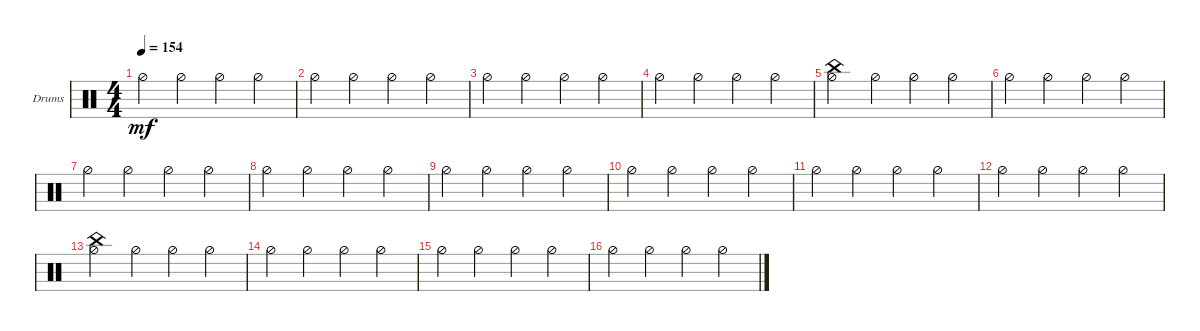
\defaultSystemsLayout 4
\bracketExtendMode groupsimilarinstruments
\firstSystemTrackNameOrientation horizontal
\otherSystemsTrackNameOrientation horizontal
\track ("Drumkit" "Drums") {instrument percussion}
\staff {score}
\articulation defaults
\ts (4 4)
\tempo 154
\clef neutral
\ks c "Hi-Hat (half)".4{dy mf} "Hi-Hat (half)".4 "Hi-Hat (half)".4 "Hi-Hat (half)".4
|
"Hi-Hat (half)".4 "Hi-Hat (half)".4 "Hi-Hat (half)".4 "Hi-Hat (half)".4 |
"Hi-Hat (half)".4 "Hi-Hat (half)".4 "Hi-Hat (half)".4 "Hi-Hat (half)".4 |
"Hi-Hat (half)".4 "Hi-Hat (half)".4 "Hi-Hat (half)".4 "Hi-Hat (half)".4 |
("Hi-Hat (half)" "China (hit)").4 "Hi-Hat (half)".4 "Hi-Hat (half)".4 "Hi-Hat (half)".4 |
"Hi-Hat (half)".4 "Hi-Hat (half)".4 "Hi-Hat (half)".4 "Hi-Hat (half)".4 |
"Hi-Hat (half)".4 "Hi-Hat (half)".4 "Hi-Hat (half)".4 "Hi-Hat (half)".4 |
"Hi-Hat (half)".4 "Hi-Hat (half)".4 "Hi-Hat (half)".4 "Hi-Hat (half)".4 |
"Hi-Hat (half)".4 "Hi-Hat (half)".4 "Hi-Hat (half)".4 "Hi-Hat (half)".4 |
"Hi-Hat (half)".4 "Hi-Hat (half)".4 "Hi-Hat (half)".4 "Hi-Hat (half)".4 |
"Hi-Hat (half)".4 "Hi-Hat (half)".4 "Hi-Hat (half)".4 "Hi-Hat (half)".4 |
"Hi-Hat (half)".4 "Hi-Hat (half)".4 "Hi-Hat (half)".4 "Hi-Hat (half)".4 |
("Hi-Hat (half)" "China (hit)").4 "Hi-Hat (half)".4 "Hi-Hat (half)".4 "Hi-Hat (half)".4 |
"Hi-Hat (half)".4 "Hi-Hat (half)".4 "Hi-Hat (half)".4 "Hi-Hat (half)".4 |
"Hi-Hat (half)".4 "Hi-Hat (half)".4 "Hi-Hat (half)".4 "Hi-Hat (half)".4 |
"Hi-Hat (half)".4 "Hi-Hat (half)".4 "Hi-Hat (half)".4 "Hi-Hat (half)".4
